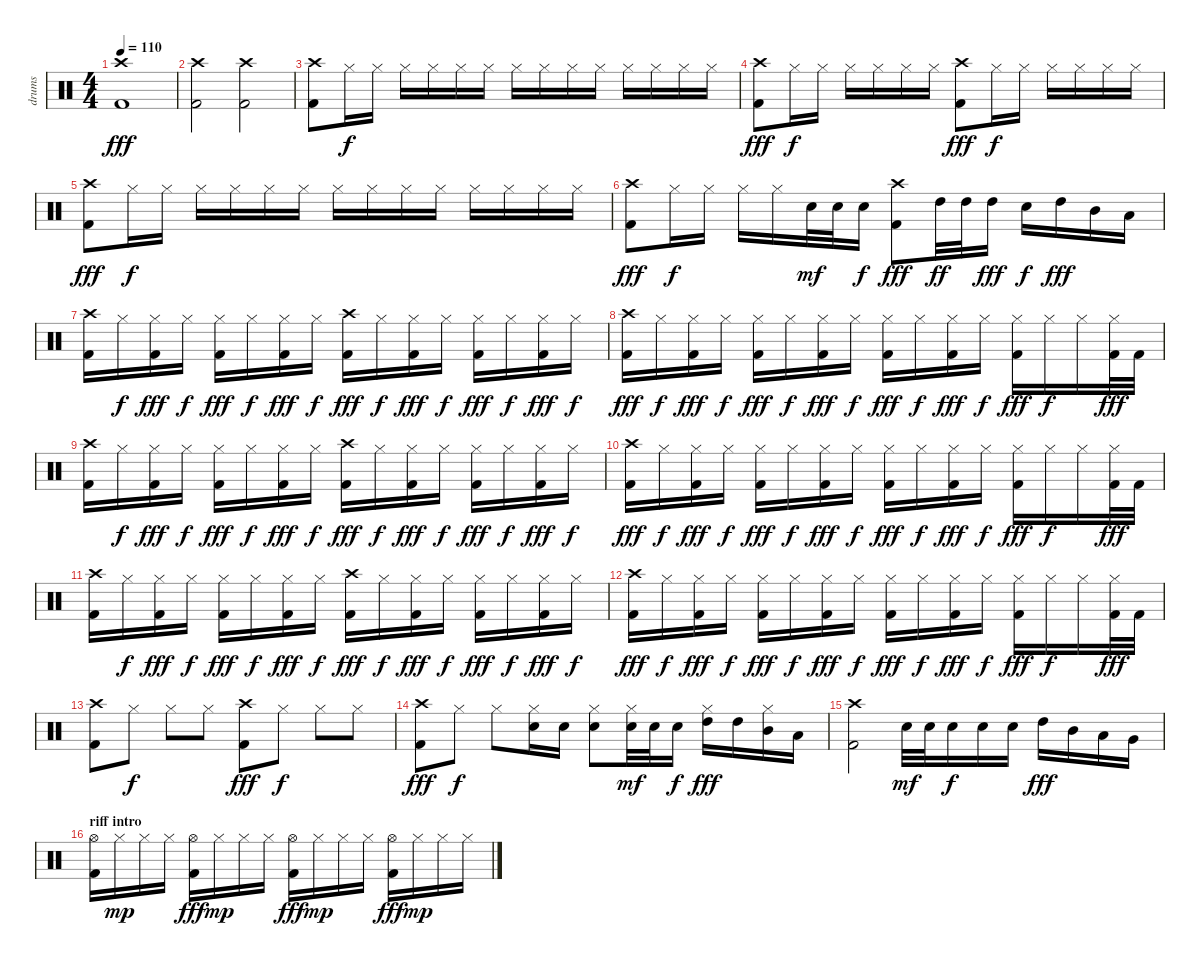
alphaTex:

\track ("drums" "drums") {instrument percussion}
\staff {score}
\articulation defaults
\ts (4 4)
\tempo 110
\clef neutral
\ks c
("Crash high (hit)" "Kick (hit) 2").1{dy fff} |
("Crash high (hit)" "Kick (hit) 2").2 ("Crash high (hit)" "Kick (hit) 2").2 |
("Crash high (hit)" "Kick (hit) 2").8 "Hi-Hat (closed)".16{dy f} "Hi-Hat (closed)".16 "Hi-Hat (closed)".16 "Hi-Hat (closed)".16 "Hi-Hat (closed)".16 "Hi-Hat (closed)".16 "Hi-Hat (closed)".16 "Hi-Hat (closed)".16 "Hi-Hat (closed)".16 "Hi-Hat (closed)".16 "Hi-Hat (closed)".16 "Hi-Hat (closed)".16 "Hi-Hat (closed)".16 "Hi-Hat (closed)".16 |
("Crash high (hit)" "Kick (hit) 2").8{dy fff} "Hi-Hat (closed)".16{dy f} "Hi-Hat (closed)".16 "Hi-Hat (closed)".16 "Hi-Hat (closed)".16 "Hi-Hat (closed)".16 "Hi-Hat (closed)".16 ("Crash high (hit)" "Kick (hit) 2").8{dy fff} "Hi-Hat (closed)".16{dy f} "Hi-Hat (closed)".16 "Hi-Hat (closed)".16 "Hi-Hat (closed)".16 "Hi-Hat (closed)".16 "Hi-Hat (closed)".16 |
("Crash high (hit)" "Kick (hit) 2").8{dy fff} "Hi-Hat (closed)".16{dy f} "Hi-Hat (closed)".16 "Hi-Hat (closed)".16 "Hi-Hat (closed)".16 "Hi-Hat (closed)".16 "Hi-Hat (closed)".16 "Hi-Hat (closed)".16 "Hi-Hat (closed)".16 "Hi-Hat (closed)".16 "Hi-Hat (closed)".16 "Hi-Hat (closed)".16 "Hi-Hat (closed)".16 "Hi-Hat (closed)".16 "Hi-Hat (closed)".16 |
("Crash high (hit)" "Kick (hit) 2").8{dy fff} "Hi-Hat (closed)".16{dy f} "Hi-Hat (closed)".16 "Hi-Hat (closed)".16 "Hi-Hat (closed)".16 "Snare (hit) 2".32{dy mf} "Snare (hit) 2".32 "Snare (hit) 2".16{dy f} ("Crash high (hit)" "Kick (hit) 2").8{dy fff} "High Tom (hit)".32{dy ff} "High Tom (hit)".32 "High Tom (hit)".16{dy fff} "Snare (hit) 2".16{dy f} "High Tom (hit)".16{dy fff} "Mid Tom (hit)".16 "Low Tom (hit)".16 |
("Crash high (hit)" "Kick (hit) 2").16 "Hi-Hat (closed)".16{dy f} ("Hi-Hat (closed)" "Kick (hit) 2").16{dy fff} "Hi-Hat (closed)".16{dy f} ("Hi-Hat (closed)" "Kick (hit) 2").16{dy fff} "Hi-Hat (closed)".16{dy f} ("Hi-Hat (closed)" "Kick (hit) 2").16{dy fff} "Hi-Hat (closed)".16{dy f} ("Crash high (hit)" "Kick (hit) 2").16{dy fff} "Hi-Hat (closed)".16{dy f} ("Hi-Hat (closed)" "Kick (hit) 2").16{dy fff} "Hi-Hat (closed)".16{dy f} ("Hi-Hat (closed)" "Kick (hit) 2").16{dy fff} "Hi-Hat (closed)".16{dy f} ("Hi-Hat (closed)" "Kick (hit) 2").16{dy fff} "Hi-Hat (closed)".16{dy f} |
("Crash high (hit)" "Kick (hit) 2").16{dy fff} "Hi-Hat (closed)".16{dy f} ("Hi-Hat (closed)" "Kick (hit) 2").16{dy fff} "Hi-Hat (closed)".16{dy f} ("Hi-Hat (closed)" "Kick (hit) 2").16{dy fff} "Hi-Hat (closed)".16{dy f} ("Hi-Hat (closed)" "Kick (hit) 2").16{dy fff} "Hi-Hat (closed)".16{dy f} ("Hi-Hat (closed)" "Kick (hit) 2").16{dy fff} "Hi-Hat (closed)".16{dy f} ("Hi-Hat (closed)" "Kick (hit) 2").16{dy fff} "Hi-Hat (closed)".16{dy f} ("Hi-Hat (closed)" "Kick (hit) 2").16{dy fff} "Hi-Hat (closed)".16{dy f} "Hi-Hat (closed)".16 ("Hi-Hat (closed)" "Kick (hit) 2").32{dy fff} "Kick (hit) 2".32 |
("Crash high (hit)" "Kick (hit) 2").16 "Hi-Hat (closed)".16{dy f} ("Hi-Hat (closed)" "Kick (hit) 2").16{dy fff} "Hi-Hat (closed)".16{dy f} ("Hi-Hat (closed)" "Kick (hit) 2").16{dy fff} "Hi-Hat (closed)".16{dy f} ("Hi-Hat (closed)" "Kick (hit) 2").16{dy fff} "Hi-Hat (closed)".16{dy f} ("Crash high (hit)" "Kick (hit) 2").16{dy fff} "Hi-Hat (closed)".16{dy f} ("Hi-Hat (closed)" "Kick (hit) 2").16{dy fff} "Hi-Hat (closed)".16{dy f} ("Hi-Hat (closed)" "Kick (hit) 2").16{dy fff} "Hi-Hat (closed)".16{dy f} ("Hi-Hat (closed)" "Kick (hit) 2").16{dy fff} "Hi-Hat (closed)".16{dy f} |
("Crash high (hit)" "Kick (hit) 2").16{dy fff} "Hi-Hat (closed)".16{dy f} ("Hi-Hat (closed)" "Kick (hit) 2").16{dy fff} "Hi-Hat (closed)".16{dy f} ("Hi-Hat (closed)" "Kick (hit) 2").16{dy fff} "Hi-Hat (closed)".16{dy f} ("Hi-Hat (closed)" "Kick (hit) 2").16{dy fff} "Hi-Hat (closed)".16{dy f} ("Hi-Hat (closed)" "Kick (hit) 2").16{dy fff} "Hi-Hat (closed)".16{dy f} ("Hi-Hat (closed)" "Kick (hit) 2").16{dy fff} "Hi-Hat (closed)".16{dy f} ("Hi-Hat (closed)" "Kick (hit) 2").16{dy fff} "Hi-Hat (closed)".16{dy f} "Hi-Hat (closed)".16 ("Hi-Hat (closed)" "Kick (hit) 2").32{dy fff} "Kick (hit) 2".32 |
("Crash high (hit)" "Kick (hit) 2").16 "Hi-Hat (closed)".16{dy f} ("Hi-Hat (closed)" "Kick (hit) 2").16{dy fff} "Hi-Hat (closed)".16{dy f} ("Hi-Hat (closed)" "Kick (hit) 2").16{dy fff} "Hi-Hat (closed)".16{dy f} ("Hi-Hat (closed)" "Kick (hit) 2").16{dy fff} "Hi-Hat (closed)".16{dy f} ("Crash high (hit)" "Kick (hit) 2").16{dy fff} "Hi-Hat (closed)".16{dy f} ("Hi-Hat (closed)" "Kick (hit) 2").16{dy fff} "Hi-Hat (closed)".16{dy f} ("Hi-Hat (closed)" "Kick (hit) 2").16{dy fff} "Hi-Hat (closed)".16{dy f} ("Hi-Hat (closed)" "Kick (hit) 2").16{dy fff} "Hi-Hat (closed)".16{dy f} |
("Crash high (hit)" "Kick (hit) 2").16{dy fff} "Hi-Hat (closed)".16{dy f} ("Hi-Hat (closed)" "Kick (hit) 2").16{dy fff} "Hi-Hat (closed)".16{dy f} ("Hi-Hat (closed)" "Kick (hit) 2").16{dy fff} "Hi-Hat (closed)".16{dy f} ("Hi-Hat (closed)" "Kick (hit) 2").16{dy fff} "Hi-Hat (closed)".16{dy f} ("Hi-Hat (closed)" "Kick (hit) 2").16{dy fff} "Hi-Hat (closed)".16{dy f} ("Hi-Hat (closed)" "Kick (hit) 2").16{dy fff} "Hi-Hat (closed)".16{dy f} ("Hi-Hat (closed)" "Kick (hit) 2").16{dy fff} "Hi-Hat (closed)".16{dy f} "Hi-Hat (closed)".16 ("Hi-Hat (closed)" "Kick (hit) 2").32{dy fff} "Kick (hit) 2".32 |
("Crash high (hit)" "Kick (hit) 2").8 "Hi-Hat (closed)".8{dy f} "Hi-Hat (closed)".8 "Hi-Hat (closed)".8 ("Crash high (hit)" "Kick (hit) 2").8{dy fff} "Hi-Hat (closed)".8{dy f} "Hi-Hat (closed)".8 "Hi-Hat (closed)".8 |
("Crash high (hit)" "Kick (hit) 2").8{dy fff} "Hi-Hat (closed)".8{dy f} "Hi-Hat (closed)".8 ("Hi-Hat (closed)" "Snare (hit) 2").16 "Snare (hit) 2".16 ("Hi-Hat (closed)" "Snare (hit) 2").8 ("Hi-Hat (closed)" "Snare (hit) 2").32{dy mf} "Snare (hit) 2".32 "Snare (hit) 2".16{dy f} ("Hi-Hat (closed)" "High Tom (hit)").16{dy fff} "High Tom (hit)".16 ("Hi-Hat (closed)" "Mid Tom (hit)").16 "Low Tom (hit)".16 |
("Crash high (hit)" "Kick (hit) 2").2 "Snare (hit) 2".32{dy mf} "Snare (hit) 2".32 "Snare (hit) 2".16{dy f} "Snare (hit) 2".16 "Snare (hit) 2".16 "High Tom (hit)".16{dy fff} "Mid Tom (hit)".16 "Low Tom (hit)".16 "Very Low Tom (hit)".16 |
\section ("" "riff intro")
("Hi-Hat (open)" "Kick (hit) 2").16 "Hi-Hat (closed)".16{dy mp} "Hi-Hat (closed)".16 "Hi-Hat (closed)".16 ("Hi-Hat (open)" "Kick (hit) 2").16{dy fff} "Hi-Hat (closed)".16{dy mp} "Hi-Hat (closed)".16 "Hi-Hat (closed)".16 ("Hi-Hat (open)" "Kick (hit) 2").16{dy fff} "Hi-Hat (closed)".16{dy mp} "Hi-Hat (closed)".16 "Hi-Hat (closed)".16 ("Hi-Hat (open)" "Kick (hit) 2").16{dy fff} "Hi-Hat (closed)".16{dy mp} "Hi-Hat (closed)".16 "Hi-Hat (closed)".16
